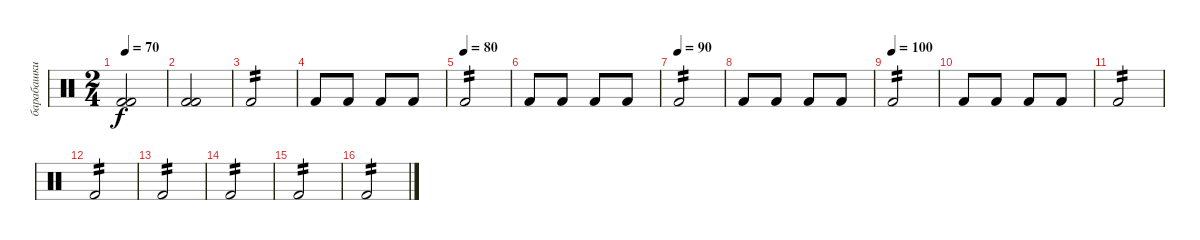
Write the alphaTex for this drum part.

\track ("барабашки low" "барабашки ") {instrument percussion}
\staff {score}
\articulation defaults
\ts (2 4)
\tempo 70
\clef neutral
\ks c
("Kick (hit) 2" "Kick (hit) 2").2{dy f} |
("Kick (hit) 2" "Kick (hit) 2").2 |
"Kick (hit) 2".2{tp 2} |
"Kick (hit) 2".8 "Kick (hit) 2".8 "Kick (hit) 2".8 "Kick (hit) 2".8 |
\tempo (80)
"Kick (hit) 2".2{tp 2} |
"Kick (hit) 2".8 "Kick (hit) 2".8 "Kick (hit) 2".8 "Kick (hit) 2".8 |
\tempo (90)
"Kick (hit) 2".2{tp 2} |
"Kick (hit) 2".8 "Kick (hit) 2".8 "Kick (hit) 2".8 "Kick (hit) 2".8 |
\tempo (100)
"Kick (hit) 2".2{tp 2} |
"Kick (hit) 2".8 "Kick (hit) 2".8 "Kick (hit) 2".8 "Kick (hit) 2".8 |
"Kick (hit) 2".2{tp 2} |
"Kick (hit) 2".2{tp 2} |
"Kick (hit) 2".2{tp 2} |
"Kick (hit) 2".2{tp 2} |
"Kick (hit) 2".2{tp 2} |
"Kick (hit) 2".2{tp 2}
